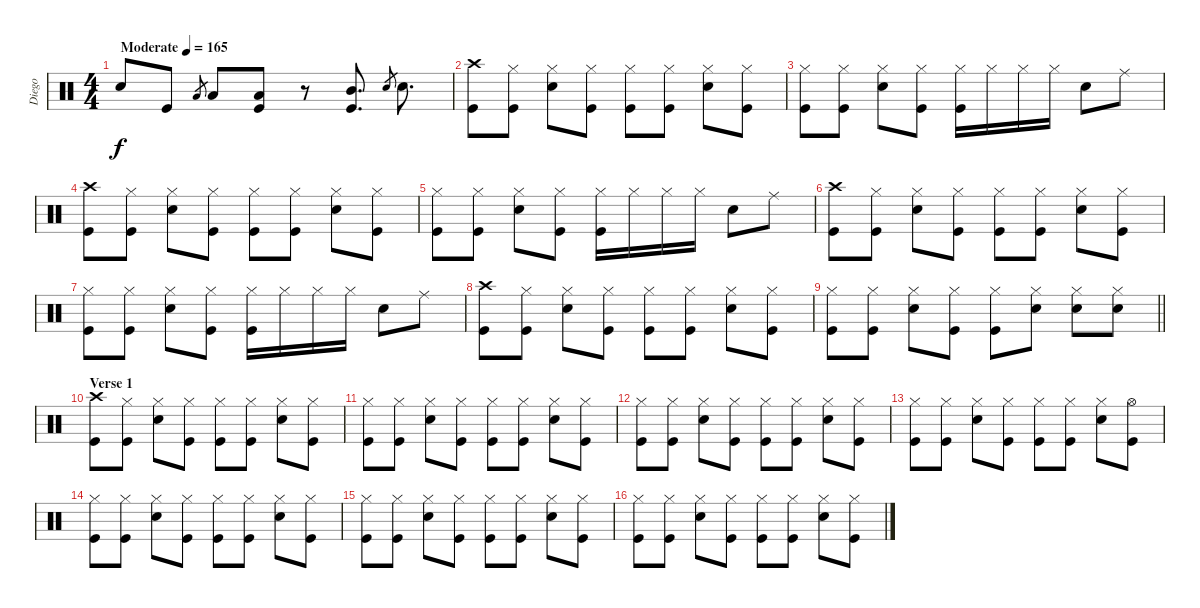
\track ("Diego" "Diego") {instrument percussion}
\staff {score}
\articulation defaults
\ts (4 4)
\tempo (165 "Moderate")
\clef neutral
\ks c "Snare (hit) 2".8{dy f} "Kick (hit)".8 "Low Tom (hit)".8{gr} "Low Tom (hit)".8
("Low Tom (hit)" "Kick (hit)").8 r.8 ("Mid Tom (hit)" "Kick (hit)").8{d} "Snare (hit) 2".8{gr} "Snare (hit) 2".8{d} |
("Crash high (hit)" "Kick (hit)").8 ("Hi-Hat (closed)" "Kick (hit)").8 ("Hi-Hat (closed)" "Snare (hit) 2").8 ("Hi-Hat (closed)" "Kick (hit)").8 ("Hi-Hat (closed)" "Kick (hit)").8 ("Hi-Hat (closed)" "Kick (hit)").8 ("Hi-Hat (closed)" "Snare (hit) 2").8 ("Hi-Hat (closed)" "Kick (hit)").8 |
("Hi-Hat (closed)" "Kick (hit)").8 ("Hi-Hat (closed)" "Kick (hit)").8 ("Hi-Hat (closed)" "Snare (hit) 2").8 ("Hi-Hat (closed)" "Kick (hit)").8 ("Hi-Hat (closed)" "Kick (hit)").16 "Hi-Hat (closed)".16 "Hi-Hat (closed)".16 "Hi-Hat (closed)".16 "Snare (hit) 2".8 "Ride (middle)".8 |
("Crash high (hit)" "Kick (hit)").8 ("Hi-Hat (closed)" "Kick (hit)").8 ("Hi-Hat (closed)" "Snare (hit) 2").8 ("Hi-Hat (closed)" "Kick (hit)").8 ("Hi-Hat (closed)" "Kick (hit)").8 ("Hi-Hat (closed)" "Kick (hit)").8 ("Hi-Hat (closed)" "Snare (hit) 2").8 ("Hi-Hat (closed)" "Kick (hit)").8 |
("Hi-Hat (closed)" "Kick (hit)").8 ("Hi-Hat (closed)" "Kick (hit)").8 ("Hi-Hat (closed)" "Snare (hit) 2").8 ("Hi-Hat (closed)" "Kick (hit)").8 ("Hi-Hat (closed)" "Kick (hit)").16 "Hi-Hat (closed)".16 "Hi-Hat (closed)".16 "Hi-Hat (closed)".16 "Snare (hit) 2".8 "Ride (middle)".8 |
("Crash high (hit)" "Kick (hit)").8 ("Hi-Hat (closed)" "Kick (hit)").8 ("Hi-Hat (closed)" "Snare (hit) 2").8 ("Hi-Hat (closed)" "Kick (hit)").8 ("Hi-Hat (closed)" "Kick (hit)").8 ("Hi-Hat (closed)" "Kick (hit)").8 ("Hi-Hat (closed)" "Snare (hit) 2").8 ("Hi-Hat (closed)" "Kick (hit)").8 |
("Hi-Hat (closed)" "Kick (hit)").8 ("Hi-Hat (closed)" "Kick (hit)").8 ("Hi-Hat (closed)" "Snare (hit) 2").8 ("Hi-Hat (closed)" "Kick (hit)").8 ("Hi-Hat (closed)" "Kick (hit)").16 "Hi-Hat (closed)".16 "Hi-Hat (closed)".16 "Hi-Hat (closed)".16 "Snare (hit) 2".8 "Ride (middle)".8 |
("Crash high (hit)" "Kick (hit)").8 ("Hi-Hat (closed)" "Kick (hit)").8 ("Hi-Hat (closed)" "Snare (hit) 2").8 ("Hi-Hat (closed)" "Kick (hit)").8 ("Hi-Hat (closed)" "Kick (hit)").8 ("Hi-Hat (closed)" "Kick (hit)").8 ("Hi-Hat (closed)" "Snare (hit) 2").8 ("Hi-Hat (closed)" "Kick (hit)").8 |
\barLineRight lightlight
("Hi-Hat (closed)" "Kick (hit)").8 ("Hi-Hat (closed)" "Kick (hit)").8 ("Hi-Hat (closed)" "Snare (hit) 2").8 ("Hi-Hat (closed)" "Kick (hit)").8 ("Hi-Hat (closed)" "Kick (hit)").8 ("Hi-Hat (closed)" "Snare (hit) 2").8 ("Hi-Hat (closed)" "Snare (hit) 2").8 ("Hi-Hat (closed)" "Snare (hit) 2").8 |
\section ("" "Verse 1")
("Crash high (hit)" "Kick (hit)").8 ("Hi-Hat (closed)" "Kick (hit)").8 ("Hi-Hat (closed)" "Snare (hit) 2").8 ("Hi-Hat (closed)" "Kick (hit)").8 ("Hi-Hat (closed)" "Kick (hit)").8 ("Hi-Hat (closed)" "Kick (hit)").8 ("Hi-Hat (closed)" "Snare (hit) 2").8 ("Hi-Hat (closed)" "Kick (hit)").8 |
("Hi-Hat (closed)" "Kick (hit)").8 ("Hi-Hat (closed)" "Kick (hit)").8 ("Hi-Hat (closed)" "Snare (hit) 2").8 ("Hi-Hat (closed)" "Kick (hit)").8 ("Hi-Hat (closed)" "Kick (hit)").8 ("Hi-Hat (closed)" "Kick (hit)").8 ("Hi-Hat (closed)" "Snare (hit) 2").8 ("Hi-Hat (closed)" "Kick (hit)").8 |
("Hi-Hat (closed)" "Kick (hit)").8 ("Hi-Hat (closed)" "Kick (hit)").8 ("Hi-Hat (closed)" "Snare (hit) 2").8 ("Hi-Hat (closed)" "Kick (hit)").8 ("Hi-Hat (closed)" "Kick (hit)").8 ("Hi-Hat (closed)" "Kick (hit)").8 ("Hi-Hat (closed)" "Snare (hit) 2").8 ("Hi-Hat (closed)" "Kick (hit)").8 |
("Hi-Hat (closed)" "Kick (hit)").8 ("Hi-Hat (closed)" "Kick (hit)").8 ("Hi-Hat (closed)" "Snare (hit) 2").8 ("Hi-Hat (closed)" "Kick (hit)").8 ("Hi-Hat (closed)" "Kick (hit)").8 ("Hi-Hat (closed)" "Kick (hit)").8 ("Hi-Hat (closed)" "Snare (hit) 2").8 ("Hi-Hat (open)" "Kick (hit)").8 |
("Hi-Hat (closed)" "Kick (hit)").8 ("Hi-Hat (closed)" "Kick (hit)").8 ("Hi-Hat (closed)" "Snare (hit) 2").8 ("Hi-Hat (closed)" "Kick (hit)").8 ("Hi-Hat (closed)" "Kick (hit)").8 ("Hi-Hat (closed)" "Kick (hit)").8 ("Hi-Hat (closed)" "Snare (hit) 2").8 ("Hi-Hat (closed)" "Kick (hit)").8 |
("Hi-Hat (closed)" "Kick (hit)").8 ("Hi-Hat (closed)" "Kick (hit)").8 ("Hi-Hat (closed)" "Snare (hit) 2").8 ("Hi-Hat (closed)" "Kick (hit)").8 ("Hi-Hat (closed)" "Kick (hit)").8 ("Hi-Hat (closed)" "Kick (hit)").8 ("Hi-Hat (closed)" "Snare (hit) 2").8 ("Hi-Hat (closed)" "Kick (hit)").8 |
("Hi-Hat (closed)" "Kick (hit)").8 ("Hi-Hat (closed)" "Kick (hit)").8 ("Hi-Hat (closed)" "Snare (hit) 2").8 ("Hi-Hat (closed)" "Kick (hit)").8 ("Hi-Hat (closed)" "Kick (hit)").8 ("Hi-Hat (closed)" "Kick (hit)").8 ("Hi-Hat (closed)" "Snare (hit) 2").8 ("Hi-Hat (closed)" "Kick (hit)").8
